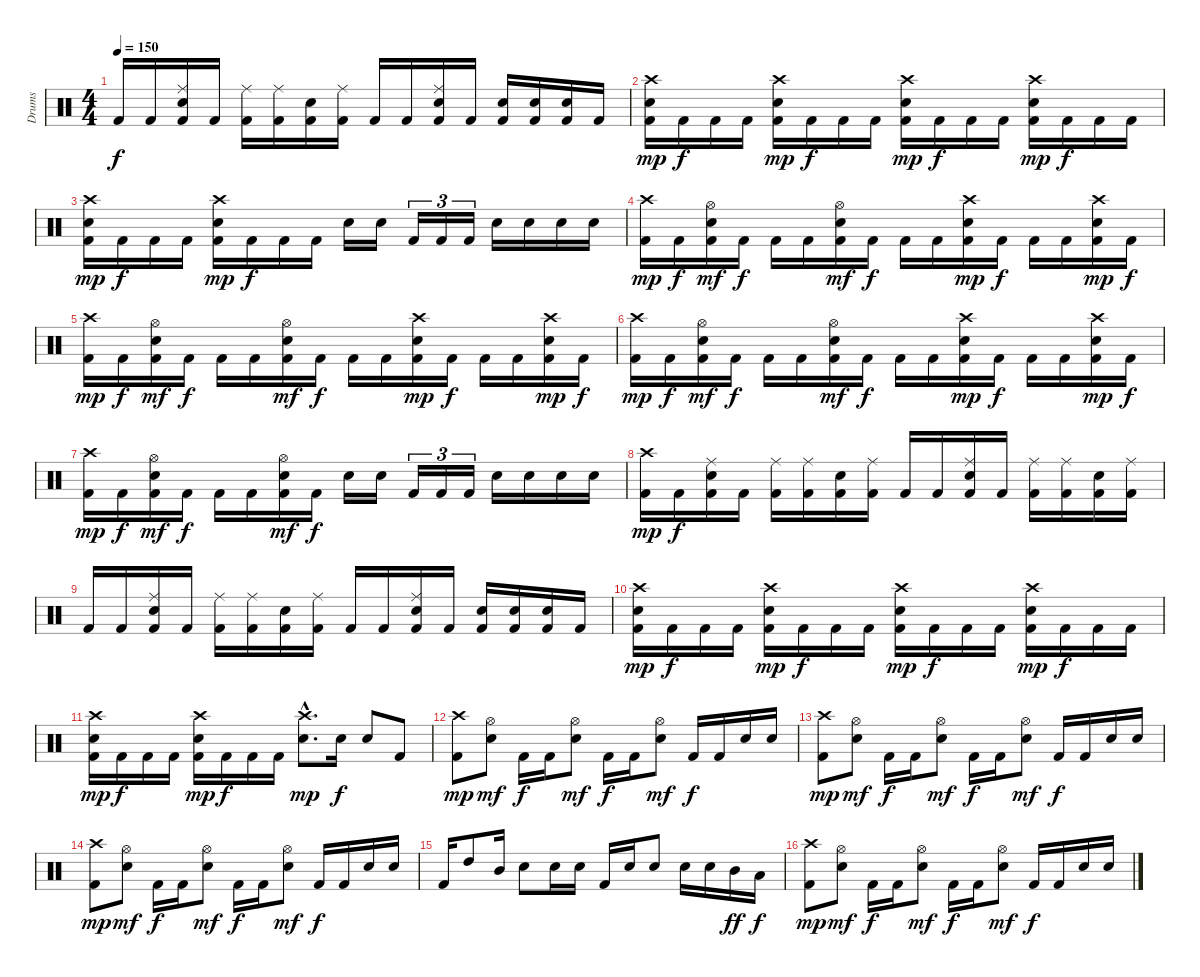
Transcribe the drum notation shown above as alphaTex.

\track ("Drums" "Drums") {instrument percussion}
\staff {score}
\articulation defaults
\ts (4 4)
\tempo 150
\clef neutral
\ks c "Kick (hit) 2".16{dy f} "Kick (hit) 2".16
("Ride (middle)" "Electric Snare (hit)" "Kick (hit) 2").16 "Kick (hit) 2".16 ("Ride (middle)" "Kick (hit) 2").16 ("Ride (middle)" "Kick (hit) 2").16 ("Electric Snare (hit)" "Kick (hit) 2").16 ("Ride (middle)" "Kick (hit) 2").16 "Kick (hit) 2".16 "Kick (hit) 2".16 ("Ride (middle)" "Electric Snare (hit)" "Kick (hit) 2").16 "Kick (hit) 2".16 ("Electric Snare (hit)" "Kick (hit) 2").16 ("Electric Snare (hit)" "Kick (hit) 2").16 ("Electric Snare (hit)" "Kick (hit) 2").16 "Kick (hit) 2".16 |
("Crash high (hit)" "Electric Snare (hit)" "Kick (hit) 2").16{dy mp} "Kick (hit) 2".16{dy f} "Kick (hit) 2".16 "Kick (hit) 2".16 ("Crash high (hit)" "Electric Snare (hit)" "Kick (hit) 2").16{dy mp} "Kick (hit) 2".16{dy f} "Kick (hit) 2".16 "Kick (hit) 2".16 ("Crash high (hit)" "Electric Snare (hit)" "Kick (hit) 2").16{dy mp} "Kick (hit) 2".16{dy f} "Kick (hit) 2".16 "Kick (hit) 2".16 ("Crash high (hit)" "Electric Snare (hit)" "Kick (hit) 2").16{dy mp} "Kick (hit) 2".16{dy f} "Kick (hit) 2".16 "Kick (hit) 2".16 |
("Crash high (hit)" "Electric Snare (hit)" "Kick (hit) 2").16{dy mp} "Kick (hit) 2".16{dy f} "Kick (hit) 2".16 "Kick (hit) 2".16 ("Crash high (hit)" "Electric Snare (hit)" "Kick (hit) 2").16{dy mp} "Kick (hit) 2".16{dy f} "Kick (hit) 2".16 "Kick (hit) 2".16 "Electric Snare (hit)".16 "Electric Snare (hit)".16 "Kick (hit) 2".16{tu (3 2)} "Kick (hit) 2".16{tu (3 2)} "Kick (hit) 2".16{tu (3 2)} "Electric Snare (hit)".16 "Electric Snare (hit)".16 "Electric Snare (hit)".16 "Electric Snare (hit)".16 |
("Crash high (hit)" "Kick (hit) 2").16{dy mp} "Kick (hit) 2".16{dy f} ("Hi-Hat (open)" "Electric Snare (hit)" "Kick (hit) 2").16{dy mf} "Kick (hit) 2".16{dy f} "Kick (hit) 2".16 "Kick (hit) 2".16 ("Hi-Hat (open)" "Electric Snare (hit)" "Kick (hit) 2").16{dy mf} "Kick (hit) 2".16{dy f} "Kick (hit) 2".16 "Kick (hit) 2".16 ("Crash high (hit)" "Electric Snare (hit)" "Kick (hit) 2").16{dy mp} "Kick (hit) 2".16{dy f} "Kick (hit) 2".16 "Kick (hit) 2".16 ("Crash high (hit)" "Electric Snare (hit)" "Kick (hit) 2").16{dy mp} "Kick (hit) 2".16{dy f} |
("Crash high (hit)" "Kick (hit) 2").16{dy mp} "Kick (hit) 2".16{dy f} ("Hi-Hat (open)" "Electric Snare (hit)" "Kick (hit) 2").16{dy mf} "Kick (hit) 2".16{dy f} "Kick (hit) 2".16 "Kick (hit) 2".16 ("Hi-Hat (open)" "Electric Snare (hit)" "Kick (hit) 2").16{dy mf} "Kick (hit) 2".16{dy f} "Kick (hit) 2".16 "Kick (hit) 2".16 ("Crash high (hit)" "Electric Snare (hit)" "Kick (hit) 2").16{dy mp} "Kick (hit) 2".16{dy f} "Kick (hit) 2".16 "Kick (hit) 2".16 ("Crash high (hit)" "Electric Snare (hit)" "Kick (hit) 2").16{dy mp} "Kick (hit) 2".16{dy f} |
("Crash high (hit)" "Kick (hit) 2").16{dy mp} "Kick (hit) 2".16{dy f} ("Hi-Hat (open)" "Electric Snare (hit)" "Kick (hit) 2").16{dy mf} "Kick (hit) 2".16{dy f} "Kick (hit) 2".16 "Kick (hit) 2".16 ("Hi-Hat (open)" "Electric Snare (hit)" "Kick (hit) 2").16{dy mf} "Kick (hit) 2".16{dy f} "Kick (hit) 2".16 "Kick (hit) 2".16 ("Crash high (hit)" "Electric Snare (hit)" "Kick (hit) 2").16{dy mp} "Kick (hit) 2".16{dy f} "Kick (hit) 2".16 "Kick (hit) 2".16 ("Crash high (hit)" "Electric Snare (hit)" "Kick (hit) 2").16{dy mp} "Kick (hit) 2".16{dy f} |
("Crash high (hit)" "Kick (hit) 2").16{dy mp} "Kick (hit) 2".16{dy f} ("Hi-Hat (open)" "Electric Snare (hit)" "Kick (hit) 2").16{dy mf} "Kick (hit) 2".16{dy f} "Kick (hit) 2".16 "Kick (hit) 2".16 ("Hi-Hat (open)" "Electric Snare (hit)" "Kick (hit) 2").16{dy mf} "Kick (hit) 2".16{dy f} "Electric Snare (hit)".16 "Electric Snare (hit)".16 "Kick (hit) 2".16{tu (3 2)} "Kick (hit) 2".16{tu (3 2)} "Kick (hit) 2".16{tu (3 2)} "Electric Snare (hit)".16 "Electric Snare (hit)".16 "Electric Snare (hit)".16 "Electric Snare (hit)".16 |
("Crash high (hit)" "Kick (hit) 2").16{dy mp} "Kick (hit) 2".16{dy f} ("Ride (middle)" "Electric Snare (hit)" "Kick (hit) 2").16 "Kick (hit) 2".16 ("Ride (middle)" "Kick (hit) 2").16 ("Ride (middle)" "Kick (hit) 2").16 ("Electric Snare (hit)" "Kick (hit) 2").16 ("Ride (middle)" "Kick (hit) 2").16 "Kick (hit) 2".16 "Kick (hit) 2".16 ("Ride (middle)" "Electric Snare (hit)" "Kick (hit) 2").16 "Kick (hit) 2".16 ("Ride (middle)" "Kick (hit) 2").16 ("Ride (middle)" "Kick (hit) 2").16 ("Electric Snare (hit)" "Kick (hit) 2").16 ("Ride (middle)" "Kick (hit) 2").16 |
"Kick (hit) 2".16 "Kick (hit) 2".16 ("Ride (middle)" "Electric Snare (hit)" "Kick (hit) 2").16 "Kick (hit) 2".16 ("Ride (middle)" "Kick (hit) 2").16 ("Ride (middle)" "Kick (hit) 2").16 ("Electric Snare (hit)" "Kick (hit) 2").16 ("Ride (middle)" "Kick (hit) 2").16 "Kick (hit) 2".16 "Kick (hit) 2".16 ("Ride (middle)" "Electric Snare (hit)" "Kick (hit) 2").16 "Kick (hit) 2".16 ("Electric Snare (hit)" "Kick (hit) 2").16 ("Electric Snare (hit)" "Kick (hit) 2").16 ("Electric Snare (hit)" "Kick (hit) 2").16 "Kick (hit) 2".16 |
("Crash high (hit)" "Electric Snare (hit)" "Kick (hit) 2").16{dy mp} "Kick (hit) 2".16{dy f} "Kick (hit) 2".16 "Kick (hit) 2".16 ("Crash high (hit)" "Electric Snare (hit)" "Kick (hit) 2").16{dy mp} "Kick (hit) 2".16{dy f} "Kick (hit) 2".16 "Kick (hit) 2".16 ("Crash high (hit)" "Electric Snare (hit)" "Kick (hit) 2").16{dy mp} "Kick (hit) 2".16{dy f} "Kick (hit) 2".16 "Kick (hit) 2".16 ("Crash high (hit)" "Electric Snare (hit)" "Kick (hit) 2").16{dy mp} "Kick (hit) 2".16{dy f} "Kick (hit) 2".16 "Kick (hit) 2".16 |
("Crash high (hit)" "Electric Snare (hit)" "Kick (hit) 2").16{dy mp} "Kick (hit) 2".16{dy f} "Kick (hit) 2".16 "Kick (hit) 2".16 ("Crash high (hit)" "Electric Snare (hit)" "Kick (hit) 2").16{dy mp} "Kick (hit) 2".16{dy f} "Kick (hit) 2".16 "Kick (hit) 2".16 ("Crash high (hit)"{hac} "Electric Snare (hit)"{hac}).8{d dy mp} "Electric Snare (hit)".16{dy f} "Electric Snare (hit)".8 "Kick (hit) 2".8 |
("Crash high (hit)" "Kick (hit) 2").8{dy mp} ("Hi-Hat (open)" "Electric Snare (hit)").8{dy mf} "Kick (hit) 2".16{dy f} "Kick (hit) 2".16 ("Hi-Hat (open)" "Electric Snare (hit)").8{dy mf} "Kick (hit) 2".16{dy f} "Kick (hit) 2".16 ("Hi-Hat (open)" "Electric Snare (hit)").8{dy mf} "Kick (hit) 2".16{dy f} "Kick (hit) 2".16 "Electric Snare (hit)".16 "Electric Snare (hit)".16 |
("Crash high (hit)" "Kick (hit) 2").8{dy mp} ("Hi-Hat (open)" "Electric Snare (hit)").8{dy mf} "Kick (hit) 2".16{dy f} "Kick (hit) 2".16 ("Hi-Hat (open)" "Electric Snare (hit)").8{dy mf} "Kick (hit) 2".16{dy f} "Kick (hit) 2".16 ("Hi-Hat (open)" "Electric Snare (hit)").8{dy mf} "Kick (hit) 2".16{dy f} "Kick (hit) 2".16 "Electric Snare (hit)".16 "Electric Snare (hit)".16 |
("Crash high (hit)" "Kick (hit) 2").8{dy mp} ("Hi-Hat (open)" "Electric Snare (hit)").8{dy mf} "Kick (hit) 2".16{dy f} "Kick (hit) 2".16 ("Hi-Hat (open)" "Electric Snare (hit)").8{dy mf} "Kick (hit) 2".16{dy f} "Kick (hit) 2".16 ("Hi-Hat (open)" "Electric Snare (hit)").8{dy mf} "Kick (hit) 2".16{dy f} "Kick (hit) 2".16 "Electric Snare (hit)".16 "Electric Snare (hit)".16 |
"Kick (hit) 2".16 "High Tom (hit)".8 "Mid Tom (hit)".16 "Electric Snare (hit)".8 "Electric Snare (hit)".16 "Electric Snare (hit)".16 "Kick (hit) 2".16 "Electric Snare (hit)".16 "Electric Snare (hit)".8 "Electric Snare (hit)".16 "Electric Snare (hit)".16 "Mid Tom (hit)".16{dy ff} "Low Tom (hit)".16{dy f} |
("Crash high (hit)" "Kick (hit) 2").8{dy mp} ("Hi-Hat (open)" "Electric Snare (hit)").8{dy mf} "Kick (hit) 2".16{dy f} "Kick (hit) 2".16 ("Hi-Hat (open)" "Electric Snare (hit)").8{dy mf} "Kick (hit) 2".16{dy f} "Kick (hit) 2".16 ("Hi-Hat (open)" "Electric Snare (hit)").8{dy mf} "Kick (hit) 2".16{dy f} "Kick (hit) 2".16 "Electric Snare (hit)".16 "Electric Snare (hit)".16
